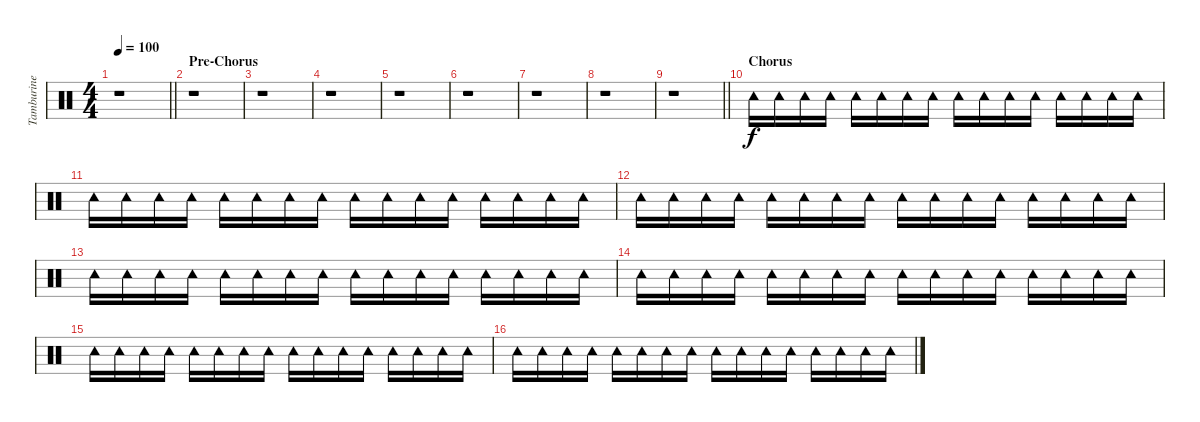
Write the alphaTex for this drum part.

\track ("Tamburine" "Tamburine") {instrument percussion}
\staff {score}
\articulation defaults
\ts (4 4)
\tempo 100
\clef neutral
\barLineRight lightlight
\ks c
r.1{dy f} |
\section ("" "Pre-Chorus")
r.1 |
r.1 |
r.1 |
r.1 |
r.1 |
r.1 |
r.1 |
\barLineRight lightlight
r.1 |
\section ("" "Chorus")
"Tambourine (hit)".16 "Tambourine (hit)".16 "Tambourine (hit)".16 "Tambourine (hit)".16 "Tambourine (hit)".16 "Tambourine (hit)".16 "Tambourine (hit)".16 "Tambourine (hit)".16 "Tambourine (hit)".16 "Tambourine (hit)".16 "Tambourine (hit)".16 "Tambourine (hit)".16 "Tambourine (hit)".16 "Tambourine (hit)".16 "Tambourine (hit)".16 "Tambourine (hit)".16 |
"Tambourine (hit)".16 "Tambourine (hit)".16 "Tambourine (hit)".16 "Tambourine (hit)".16 "Tambourine (hit)".16 "Tambourine (hit)".16 "Tambourine (hit)".16 "Tambourine (hit)".16 "Tambourine (hit)".16 "Tambourine (hit)".16 "Tambourine (hit)".16 "Tambourine (hit)".16 "Tambourine (hit)".16 "Tambourine (hit)".16 "Tambourine (hit)".16 "Tambourine (hit)".16 |
"Tambourine (hit)".16 "Tambourine (hit)".16 "Tambourine (hit)".16 "Tambourine (hit)".16 "Tambourine (hit)".16 "Tambourine (hit)".16 "Tambourine (hit)".16 "Tambourine (hit)".16 "Tambourine (hit)".16 "Tambourine (hit)".16 "Tambourine (hit)".16 "Tambourine (hit)".16 "Tambourine (hit)".16 "Tambourine (hit)".16 "Tambourine (hit)".16 "Tambourine (hit)".16 |
"Tambourine (hit)".16 "Tambourine (hit)".16 "Tambourine (hit)".16 "Tambourine (hit)".16 "Tambourine (hit)".16 "Tambourine (hit)".16 "Tambourine (hit)".16 "Tambourine (hit)".16 "Tambourine (hit)".16 "Tambourine (hit)".16 "Tambourine (hit)".16 "Tambourine (hit)".16 "Tambourine (hit)".16 "Tambourine (hit)".16 "Tambourine (hit)".16 "Tambourine (hit)".16 |
"Tambourine (hit)".16 "Tambourine (hit)".16 "Tambourine (hit)".16 "Tambourine (hit)".16 "Tambourine (hit)".16 "Tambourine (hit)".16 "Tambourine (hit)".16 "Tambourine (hit)".16 "Tambourine (hit)".16 "Tambourine (hit)".16 "Tambourine (hit)".16 "Tambourine (hit)".16 "Tambourine (hit)".16 "Tambourine (hit)".16 "Tambourine (hit)".16 "Tambourine (hit)".16 |
"Tambourine (hit)".16 "Tambourine (hit)".16 "Tambourine (hit)".16 "Tambourine (hit)".16 "Tambourine (hit)".16 "Tambourine (hit)".16 "Tambourine (hit)".16 "Tambourine (hit)".16 "Tambourine (hit)".16 "Tambourine (hit)".16 "Tambourine (hit)".16 "Tambourine (hit)".16 "Tambourine (hit)".16 "Tambourine (hit)".16 "Tambourine (hit)".16 "Tambourine (hit)".16 |
"Tambourine (hit)".16 "Tambourine (hit)".16 "Tambourine (hit)".16 "Tambourine (hit)".16 "Tambourine (hit)".16 "Tambourine (hit)".16 "Tambourine (hit)".16 "Tambourine (hit)".16 "Tambourine (hit)".16 "Tambourine (hit)".16 "Tambourine (hit)".16 "Tambourine (hit)".16 "Tambourine (hit)".16 "Tambourine (hit)".16 "Tambourine (hit)".16 "Tambourine (hit)".16
